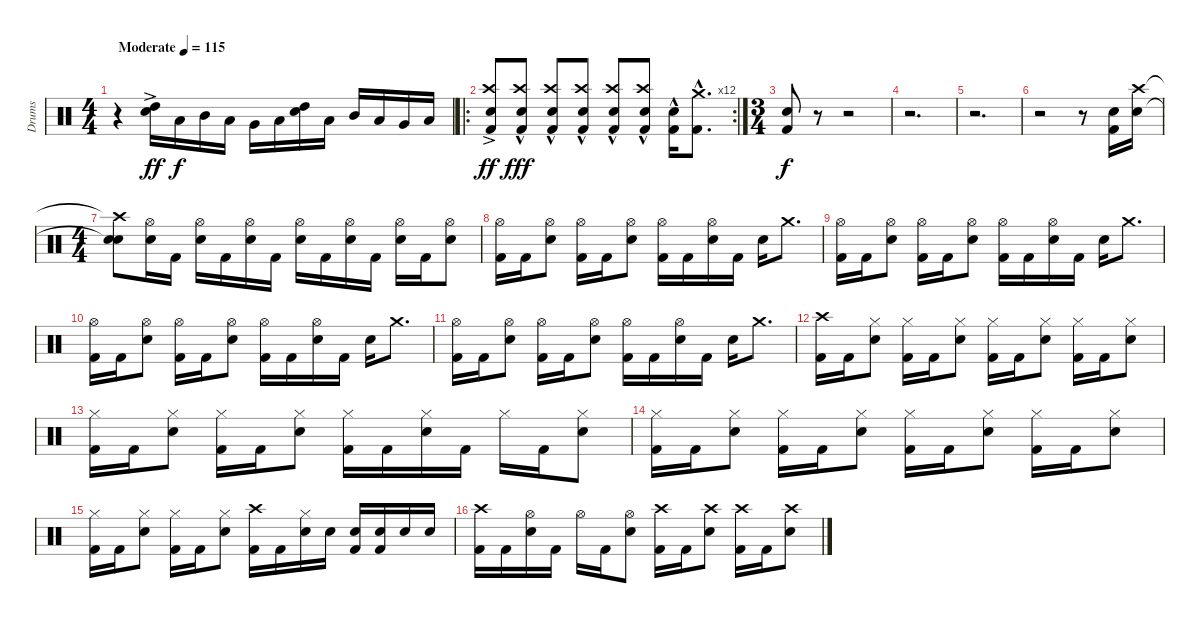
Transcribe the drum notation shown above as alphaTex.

\track ("Drums" "Drums") {instrument percussion}
\staff {score}
\articulation defaults
\ts (4 4)
\tempo (115 "Moderate")
\clef neutral
\ks c
r.4{dy ff} ("High Tom (hit)"{ac} "Electric Snare (hit)"{ac}).16 "Low Tom (hit)".16{dy f} "Mid Tom (hit)".16 "Low Floor Tom (hit)".16 "Very Low Tom (hit)".16 "Low Floor Tom (hit)".16 ("High Tom (hit)" "Electric Snare (hit)").16 "Low Tom (hit)".16 "Mid Tom (hit)".16 "Low Floor Tom (hit)".16 "Very Low Tom (hit)".16 "Low Floor Tom (hit)".16 |
\ro
\rc 12
("Crash high (hit)" "Electric Snare (hit)" "Kick (hit) 2"{ac}).8{dy ff} ("Crash high (hit)" "Electric Snare (hit)" "Kick (hit) 2"{hac}).8{dy fff} ("Crash high (hit)" "Electric Snare (hit)" "Kick (hit) 2"{hac}).8 ("Crash high (hit)" "Electric Snare (hit)" "Kick (hit) 2"{hac}).8 ("Crash high (hit)" "Electric Snare (hit)" "Kick (hit) 2"{hac}).8 ("Crash high (hit)" "Electric Snare (hit)" "Kick (hit) 2"{hac}).8 ("Electric Snare (hit)" "Kick (hit) 2"{hac}).16 ("Crash medium (hit)" "Kick (hit) 2"{hac}).8{d} |
\ts (3 4)
("Electric Snare (hit)" "Kick (hit) 2").8{dy f} r.8 r.2 |
r.2{d} |
r.2{d} |
r.2 r.8 ("Electric Snare (hit)" "Kick (hit) 2").16 ("Crash high (hit)" "Electric Snare (hit)").16 |
\ts (4 4)
("Crash high (hit)"{t} "Snare (hit)"{t} "Electric Snare (hit)").8 ("Hi-Hat (open)" "Electric Snare (hit)").16 "Kick (hit) 2".16 ("Hi-Hat (open)" "Electric Snare (hit)").16 "Kick (hit) 2".16 ("Hi-Hat (open)" "Electric Snare (hit)").16 "Kick (hit) 2".16 ("Hi-Hat (open)" "Electric Snare (hit)").16 "Kick (hit) 2".16 ("Hi-Hat (open)" "Electric Snare (hit)").16 "Kick (hit) 2".16 ("Hi-Hat (open)" "Electric Snare (hit)").16 "Kick (hit) 2".16 ("Hi-Hat (open)" "Snare (hit) 2").8 |
("Hi-Hat (open)" "Kick (hit) 2").16 "Kick (hit) 2".16 ("Hi-Hat (open)" "Electric Snare (hit)").8 ("Hi-Hat (open)" "Kick (hit) 2").16 "Kick (hit) 2".16 ("Hi-Hat (open)" "Electric Snare (hit)").8 ("Hi-Hat (open)" "Kick (hit) 2").16 "Kick (hit) 2".16 ("Hi-Hat (open)" "Electric Snare (hit)").16 "Kick (hit) 2".16 "Electric Snare (hit)".16 "Crash medium (hit)".8{d} |
("Hi-Hat (open)" "Kick (hit) 2").16 "Kick (hit) 2".16 ("Hi-Hat (open)" "Electric Snare (hit)").8 ("Hi-Hat (open)" "Kick (hit) 2").16 "Kick (hit) 2".16 ("Hi-Hat (open)" "Electric Snare (hit)").8 ("Hi-Hat (open)" "Kick (hit) 2").16 "Kick (hit) 2".16 ("Hi-Hat (open)" "Electric Snare (hit)").16 "Kick (hit) 2".16 "Electric Snare (hit)".16 "Crash medium (hit)".8{d} |
("Hi-Hat (open)" "Kick (hit) 2").16 "Kick (hit) 2".16 ("Hi-Hat (open)" "Electric Snare (hit)").8 ("Hi-Hat (open)" "Kick (hit) 2").16 "Kick (hit) 2".16 ("Hi-Hat (open)" "Electric Snare (hit)").8 ("Hi-Hat (open)" "Kick (hit) 2").16 "Kick (hit) 2".16 ("Hi-Hat (open)" "Electric Snare (hit)").16 "Kick (hit) 2".16 "Electric Snare (hit)".16 "Crash medium (hit)".8{d} |
("Hi-Hat (open)" "Kick (hit) 2").16 "Kick (hit) 2".16 ("Hi-Hat (open)" "Electric Snare (hit)").8 ("Hi-Hat (open)" "Kick (hit) 2").16 "Kick (hit) 2".16 ("Hi-Hat (open)" "Electric Snare (hit)").8 ("Hi-Hat (open)" "Kick (hit) 2").16 "Kick (hit) 2".16 ("Hi-Hat (open)" "Electric Snare (hit)").16 "Kick (hit) 2".16 "Electric Snare (hit)".16 "Crash medium (hit)".8{d} |
("Crash high (hit)" "Kick (hit) 2").16 "Kick (hit) 2".16 ("Hi-Hat (closed)" "Electric Snare (hit)").8 ("Hi-Hat (closed)" "Kick (hit) 2").16 "Kick (hit) 2".16 ("Hi-Hat (closed)" "Electric Snare (hit)").8 ("Hi-Hat (closed)" "Kick (hit) 2").16 "Kick (hit) 2".16 ("Hi-Hat (closed)" "Electric Snare (hit)").8 ("Hi-Hat (closed)" "Kick (hit) 2").16 "Kick (hit) 2".16 ("Hi-Hat (closed)" "Electric Snare (hit)").8 |
("Hi-Hat (closed)" "Kick (hit) 2").16 "Kick (hit) 2".16 ("Hi-Hat (closed)" "Electric Snare (hit)").8 ("Hi-Hat (closed)" "Kick (hit) 2").16 "Kick (hit) 2".16 ("Hi-Hat (closed)" "Electric Snare (hit)").8 ("Hi-Hat (closed)" "Kick (hit) 2").16 "Kick (hit) 2".16 ("Hi-Hat (closed)" "Electric Snare (hit)").16 "Kick (hit) 2".16 "Hi-Hat (closed)".16 "Kick (hit) 2".16 ("Hi-Hat (closed)" "Electric Snare (hit)").8 |
("Hi-Hat (closed)" "Kick (hit) 2").16 "Kick (hit) 2".16 ("Hi-Hat (closed)" "Electric Snare (hit)").8 ("Hi-Hat (closed)" "Kick (hit) 2").16 "Kick (hit) 2".16 ("Hi-Hat (closed)" "Electric Snare (hit)").8 ("Hi-Hat (closed)" "Kick (hit) 2").16 "Kick (hit) 2".16 ("Hi-Hat (closed)" "Electric Snare (hit)").8 ("Hi-Hat (closed)" "Kick (hit) 2").16 "Kick (hit) 2".16 ("Hi-Hat (closed)" "Electric Snare (hit)").8 |
("Hi-Hat (closed)" "Kick (hit) 2").16 "Kick (hit) 2".16 ("Hi-Hat (closed)" "Electric Snare (hit)").8 ("Hi-Hat (closed)" "Kick (hit) 2").16 "Kick (hit) 2".16 ("Hi-Hat (closed)" "Electric Snare (hit)").8 ("Crash high (hit)" "Kick (hit) 2").16 "Kick (hit) 2".16 ("Hi-Hat (closed)" "Electric Snare (hit)").16 "Electric Snare (hit)".16 ("Electric Snare (hit)" "Kick (hit) 2").16 ("Electric Snare (hit)" "Kick (hit) 2").16 "Electric Snare (hit)".16 "Electric Snare (hit)".16 |
("Crash high (hit)" "Kick (hit) 2").16 "Kick (hit) 2".16 ("Hi-Hat (open)" "Electric Snare (hit)").16 "Kick (hit) 2".16 "Hi-Hat (open)".16 "Kick (hit) 2".16 ("Hi-Hat (open)" "Electric Snare (hit)").8 ("Crash high (hit)" "Kick (hit) 2").16 "Kick (hit) 2".16 ("Crash high (hit)" "Electric Snare (hit)").8 ("Crash high (hit)" "Kick (hit) 2").16 "Kick (hit) 2".16 ("Crash high (hit)" "Electric Snare (hit)").8
